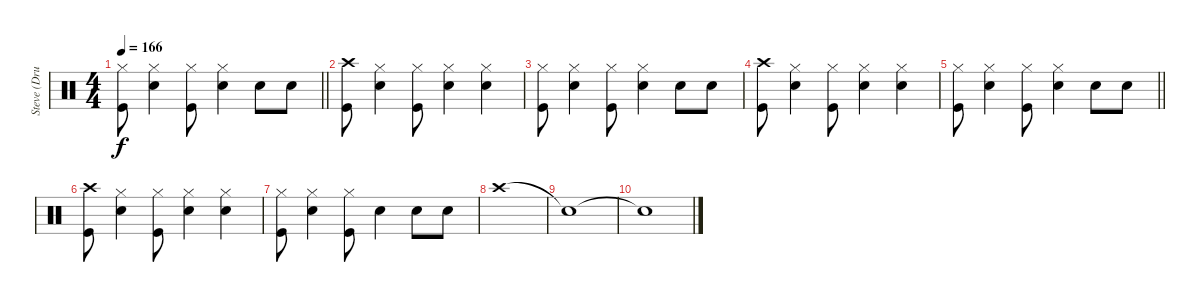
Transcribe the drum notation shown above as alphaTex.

\track ("Steve (Drums)" "Steve (Dru") {instrument percussion}
\staff {score}
\articulation defaults
\ts (4 4)
\tempo 166
\clef neutral
\barLineRight lightlight
\ks c
("Hi-Hat (closed)" "Kick (hit)").8{dy f} ("Hi-Hat (closed)" "Electric Snare (hit)").4 ("Hi-Hat (closed)" "Kick (hit)").8 ("Hi-Hat (closed)" "Electric Snare (hit)").4 "Electric Snare (hit)".8 "Electric Snare (hit)".8 |
("Crash high (hit)" "Kick (hit)").8 ("Hi-Hat (closed)" "Electric Snare (hit)").4 ("Hi-Hat (closed)" "Kick (hit)").8 ("Hi-Hat (closed)" "Electric Snare (hit)").4 ("Hi-Hat (closed)" "Electric Snare (hit)").4 |
("Hi-Hat (closed)" "Kick (hit)").8 ("Hi-Hat (closed)" "Electric Snare (hit)").4 ("Hi-Hat (closed)" "Kick (hit)").8 ("Hi-Hat (closed)" "Electric Snare (hit)").4 "Electric Snare (hit)".8 "Electric Snare (hit)".8 |
("Crash high (hit)" "Kick (hit)").8 ("Hi-Hat (closed)" "Electric Snare (hit)").4 ("Hi-Hat (closed)" "Kick (hit)").8 ("Hi-Hat (closed)" "Electric Snare (hit)").4 ("Hi-Hat (closed)" "Electric Snare (hit)").4 |
\barLineRight lightlight
("Hi-Hat (closed)" "Kick (hit)").8 ("Hi-Hat (closed)" "Electric Snare (hit)").4 ("Hi-Hat (closed)" "Kick (hit)").8 ("Hi-Hat (closed)" "Electric Snare (hit)").4 "Electric Snare (hit)".8 "Electric Snare (hit)".8 |
("Crash high (hit)" "Kick (hit)").8 ("Hi-Hat (closed)" "Electric Snare (hit)").4 ("Hi-Hat (closed)" "Kick (hit)").8 ("Hi-Hat (closed)" "Electric Snare (hit)").4 ("Hi-Hat (closed)" "Electric Snare (hit)").4 |
("Hi-Hat (closed)" "Kick (hit)").8 ("Hi-Hat (closed)" "Electric Snare (hit)").4 ("Hi-Hat (closed)" "Kick (hit)").8 "Electric Snare (hit)".4 "Electric Snare (hit)".8 "Electric Snare (hit)".8 |
"Crash high (hit)".1 |
"Snare (hit)"{t}.1 |
"Snare (hit)"{t}.1
